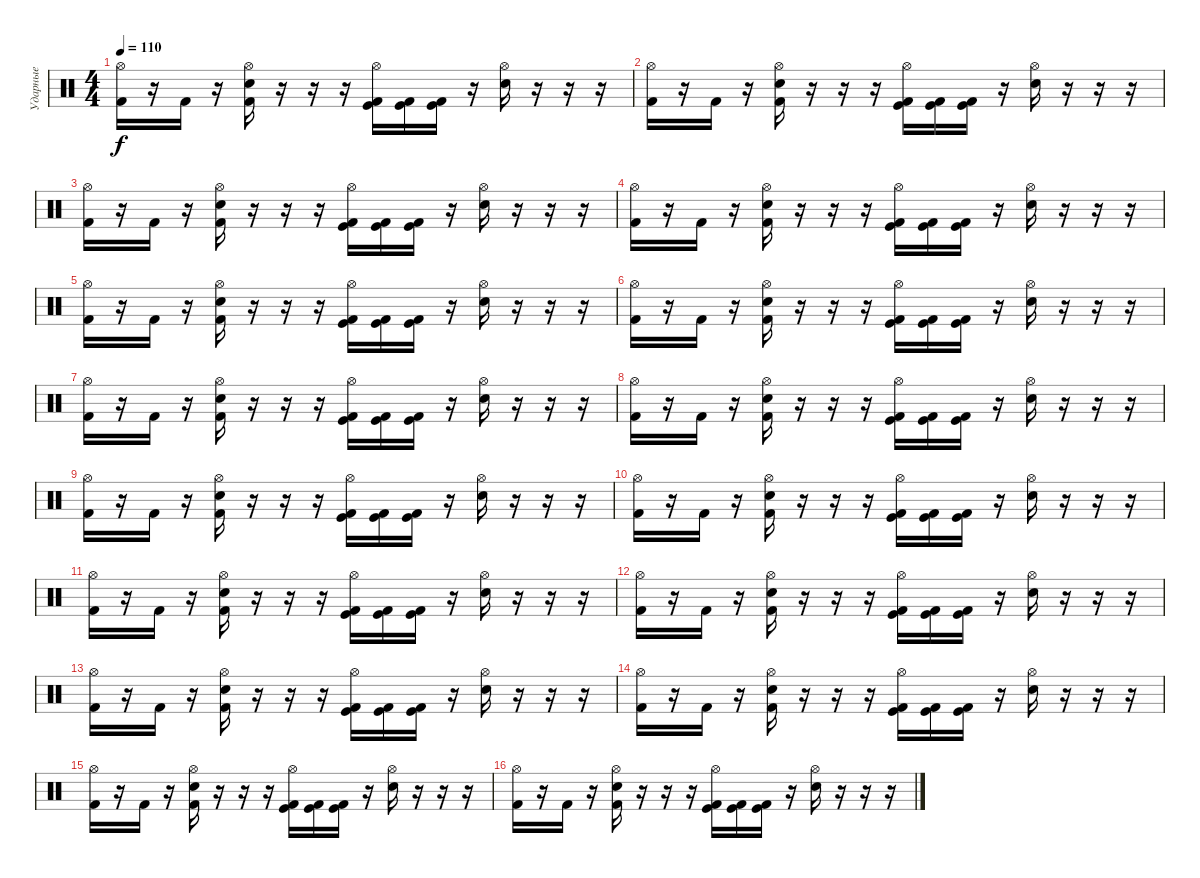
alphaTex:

\track ("Ударные" "Ударные") {instrument percussion}
\staff {score}
\articulation defaults
\ts (4 4)
\tempo 110
\clef neutral
\ks c
("Hi-Hat (open)" "Kick (hit) 2").16{dy f} r.16 "Kick (hit) 2".16 r.16 ("Hi-Hat (open)" "Electric Snare (hit)" "Kick (hit) 2").16 r.16 r.16 r.16 ("Hi-Hat (open)" "Kick (hit)" "Kick (hit) 2").16 ("Kick (hit)" "Kick (hit) 2").16 ("Kick (hit)" "Kick (hit) 2").16 r.16 ("Hi-Hat (open)" "Electric Snare (hit)").16 r.16 r.16 r.16 |
("Hi-Hat (open)" "Kick (hit) 2").16 r.16 "Kick (hit) 2".16 r.16 ("Hi-Hat (open)" "Electric Snare (hit)" "Kick (hit) 2").16 r.16 r.16 r.16 ("Hi-Hat (open)" "Kick (hit)" "Kick (hit) 2").16 ("Kick (hit)" "Kick (hit) 2").16 ("Kick (hit)" "Kick (hit) 2").16 r.16 ("Hi-Hat (open)" "Electric Snare (hit)").16 r.16 r.16 r.16 |
("Hi-Hat (open)" "Kick (hit) 2").16 r.16 "Kick (hit) 2".16 r.16 ("Hi-Hat (open)" "Electric Snare (hit)" "Kick (hit) 2").16 r.16 r.16 r.16 ("Hi-Hat (open)" "Kick (hit)" "Kick (hit) 2").16 ("Kick (hit)" "Kick (hit) 2").16 ("Kick (hit)" "Kick (hit) 2").16 r.16 ("Hi-Hat (open)" "Electric Snare (hit)").16 r.16 r.16 r.16 |
("Hi-Hat (open)" "Kick (hit) 2").16 r.16 "Kick (hit) 2".16 r.16 ("Hi-Hat (open)" "Electric Snare (hit)" "Kick (hit) 2").16 r.16 r.16 r.16 ("Hi-Hat (open)" "Kick (hit)" "Kick (hit) 2").16 ("Kick (hit)" "Kick (hit) 2").16 ("Kick (hit)" "Kick (hit) 2").16 r.16 ("Hi-Hat (open)" "Electric Snare (hit)").16 r.16 r.16 r.16 |
("Hi-Hat (open)" "Kick (hit) 2").16 r.16 "Kick (hit) 2".16 r.16 ("Hi-Hat (open)" "Electric Snare (hit)" "Kick (hit) 2").16 r.16 r.16 r.16 ("Hi-Hat (open)" "Kick (hit)" "Kick (hit) 2").16 ("Kick (hit)" "Kick (hit) 2").16 ("Kick (hit)" "Kick (hit) 2").16 r.16 ("Hi-Hat (open)" "Electric Snare (hit)").16 r.16 r.16 r.16 |
("Hi-Hat (open)" "Kick (hit) 2").16 r.16 "Kick (hit) 2".16 r.16 ("Hi-Hat (open)" "Electric Snare (hit)" "Kick (hit) 2").16 r.16 r.16 r.16 ("Hi-Hat (open)" "Kick (hit)" "Kick (hit) 2").16 ("Kick (hit)" "Kick (hit) 2").16 ("Kick (hit)" "Kick (hit) 2").16 r.16 ("Hi-Hat (open)" "Electric Snare (hit)").16 r.16 r.16 r.16 |
("Hi-Hat (open)" "Kick (hit) 2").16 r.16 "Kick (hit) 2".16 r.16 ("Hi-Hat (open)" "Electric Snare (hit)" "Kick (hit) 2").16 r.16 r.16 r.16 ("Hi-Hat (open)" "Kick (hit)" "Kick (hit) 2").16 ("Kick (hit)" "Kick (hit) 2").16 ("Kick (hit)" "Kick (hit) 2").16 r.16 ("Hi-Hat (open)" "Electric Snare (hit)").16 r.16 r.16 r.16 |
("Hi-Hat (open)" "Kick (hit) 2").16 r.16 "Kick (hit) 2".16 r.16 ("Hi-Hat (open)" "Electric Snare (hit)" "Kick (hit) 2").16 r.16 r.16 r.16 ("Hi-Hat (open)" "Kick (hit)" "Kick (hit) 2").16 ("Kick (hit)" "Kick (hit) 2").16 ("Kick (hit)" "Kick (hit) 2").16 r.16 ("Hi-Hat (open)" "Electric Snare (hit)").16 r.16 r.16 r.16 |
("Hi-Hat (open)" "Kick (hit) 2").16 r.16 "Kick (hit) 2".16 r.16 ("Hi-Hat (open)" "Electric Snare (hit)" "Kick (hit) 2").16 r.16 r.16 r.16 ("Hi-Hat (open)" "Kick (hit)" "Kick (hit) 2").16 ("Kick (hit)" "Kick (hit) 2").16 ("Kick (hit)" "Kick (hit) 2").16 r.16 ("Hi-Hat (open)" "Electric Snare (hit)").16 r.16 r.16 r.16 |
("Hi-Hat (open)" "Kick (hit) 2").16 r.16 "Kick (hit) 2".16 r.16 ("Hi-Hat (open)" "Electric Snare (hit)" "Kick (hit) 2").16 r.16 r.16 r.16 ("Hi-Hat (open)" "Kick (hit)" "Kick (hit) 2").16 ("Kick (hit)" "Kick (hit) 2").16 ("Kick (hit)" "Kick (hit) 2").16 r.16 ("Hi-Hat (open)" "Electric Snare (hit)").16 r.16 r.16 r.16 |
("Hi-Hat (open)" "Kick (hit) 2").16 r.16 "Kick (hit) 2".16 r.16 ("Hi-Hat (open)" "Electric Snare (hit)" "Kick (hit) 2").16 r.16 r.16 r.16 ("Hi-Hat (open)" "Kick (hit)" "Kick (hit) 2").16 ("Kick (hit)" "Kick (hit) 2").16 ("Kick (hit)" "Kick (hit) 2").16 r.16 ("Hi-Hat (open)" "Electric Snare (hit)").16 r.16 r.16 r.16 |
("Hi-Hat (open)" "Kick (hit) 2").16 r.16 "Kick (hit) 2".16 r.16 ("Hi-Hat (open)" "Electric Snare (hit)" "Kick (hit) 2").16 r.16 r.16 r.16 ("Hi-Hat (open)" "Kick (hit)" "Kick (hit) 2").16 ("Kick (hit)" "Kick (hit) 2").16 ("Kick (hit)" "Kick (hit) 2").16 r.16 ("Hi-Hat (open)" "Electric Snare (hit)").16 r.16 r.16 r.16 |
("Hi-Hat (open)" "Kick (hit) 2").16 r.16 "Kick (hit) 2".16 r.16 ("Hi-Hat (open)" "Electric Snare (hit)" "Kick (hit) 2").16 r.16 r.16 r.16 ("Hi-Hat (open)" "Kick (hit)" "Kick (hit) 2").16 ("Kick (hit)" "Kick (hit) 2").16 ("Kick (hit)" "Kick (hit) 2").16 r.16 ("Hi-Hat (open)" "Electric Snare (hit)").16 r.16 r.16 r.16 |
("Hi-Hat (open)" "Kick (hit) 2").16 r.16 "Kick (hit) 2".16 r.16 ("Hi-Hat (open)" "Electric Snare (hit)" "Kick (hit) 2").16 r.16 r.16 r.16 ("Hi-Hat (open)" "Kick (hit)" "Kick (hit) 2").16 ("Kick (hit)" "Kick (hit) 2").16 ("Kick (hit)" "Kick (hit) 2").16 r.16 ("Hi-Hat (open)" "Electric Snare (hit)").16 r.16 r.16 r.16 |
("Hi-Hat (open)" "Kick (hit) 2").16 r.16 "Kick (hit) 2".16 r.16 ("Hi-Hat (open)" "Electric Snare (hit)" "Kick (hit) 2").16 r.16 r.16 r.16 ("Hi-Hat (open)" "Kick (hit)" "Kick (hit) 2").16 ("Kick (hit)" "Kick (hit) 2").16 ("Kick (hit)" "Kick (hit) 2").16 r.16 ("Hi-Hat (open)" "Electric Snare (hit)").16 r.16 r.16 r.16 |
("Hi-Hat (open)" "Kick (hit) 2").16 r.16 "Kick (hit) 2".16 r.16 ("Hi-Hat (open)" "Electric Snare (hit)" "Kick (hit) 2").16 r.16 r.16 r.16 ("Hi-Hat (open)" "Kick (hit)" "Kick (hit) 2").16 ("Kick (hit)" "Kick (hit) 2").16 ("Kick (hit)" "Kick (hit) 2").16 r.16 ("Hi-Hat (open)" "Electric Snare (hit)").16 r.16 r.16 r.16
